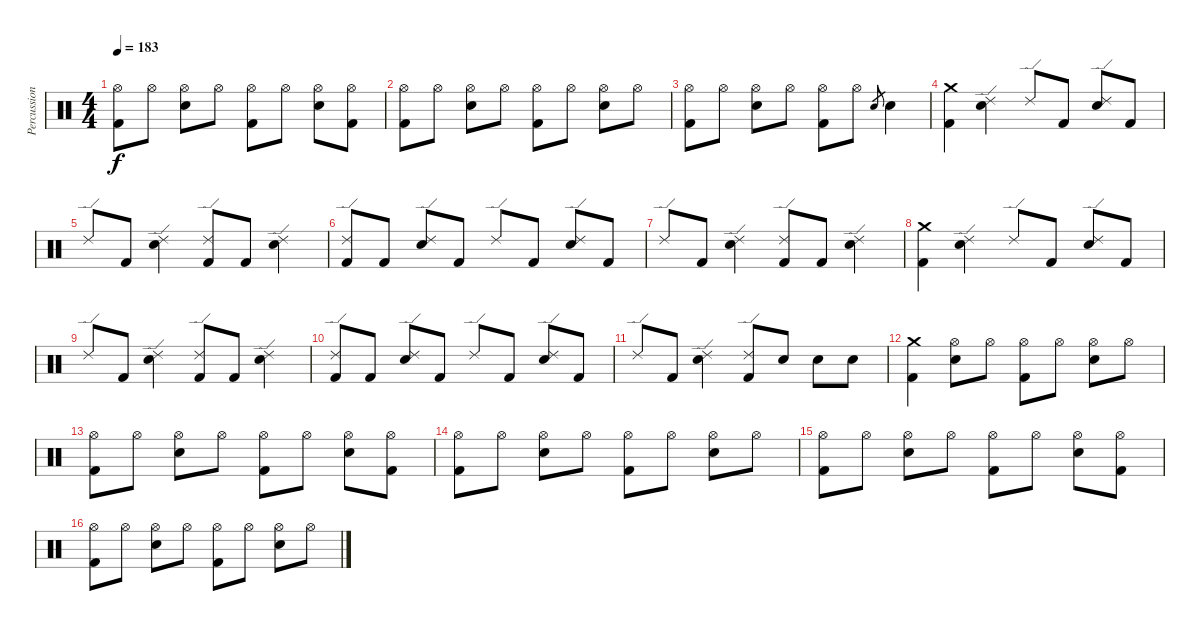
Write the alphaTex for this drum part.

\track ("Percussion" "Percussion") {instrument percussion}
\staff {score}
\articulation defaults
\ts (4 4)
\tempo 183
\clef neutral
\ks c
("Hi-Hat (open)" "Kick (hit) 2").8{dy f} "Hi-Hat (open)".8 ("Hi-Hat (open)" "Snare (hit) 2").8 "Hi-Hat (open)".8 ("Hi-Hat (open)" "Kick (hit) 2").8 "Hi-Hat (open)".8 ("Hi-Hat (open)" "Snare (hit) 2").8 ("Hi-Hat (open)" "Kick (hit) 2").8 |
("Hi-Hat (open)" "Kick (hit) 2").8 "Hi-Hat (open)".8 ("Hi-Hat (open)" "Snare (hit) 2").8 "Hi-Hat (open)".8 ("Hi-Hat (open)" "Kick (hit) 2").8 "Hi-Hat (open)".8 ("Hi-Hat (open)" "Snare (hit) 2").8 "Hi-Hat (open)".8 |
("Hi-Hat (open)" "Kick (hit) 2").8 "Hi-Hat (open)".8 ("Hi-Hat (open)" "Snare (hit) 2").8 "Hi-Hat (open)".8 ("Hi-Hat (open)" "Kick (hit) 2").8 "Hi-Hat (open)".8 "Snare (hit) 2".8{gr} "Snare (hit) 2".4 |
("Crash medium (hit)" "Kick (hit) 2").4 ("Ride (edge) 2" "Snare (hit) 2").4 "Ride (edge) 2".8 "Kick (hit) 2".8 ("Ride (edge) 2" "Snare (hit) 2").8 "Kick (hit) 2".8 |
"Ride (edge) 2".8 "Kick (hit) 2".8 ("Ride (edge) 2" "Snare (hit) 2").4 ("Ride (edge) 2" "Kick (hit) 2").8 "Kick (hit) 2".8 ("Ride (edge) 2" "Snare (hit) 2").4 |
("Ride (edge) 2" "Kick (hit) 2").8 "Kick (hit) 2".8 ("Ride (edge) 2" "Snare (hit) 2").8 "Kick (hit) 2".8 "Ride (edge) 2".8 "Kick (hit) 2".8 ("Ride (edge) 2" "Snare (hit) 2").8 "Kick (hit) 2".8 |
"Ride (edge) 2".8 "Kick (hit) 2".8 ("Ride (edge) 2" "Snare (hit) 2").4 ("Ride (edge) 2" "Kick (hit) 2").8 "Kick (hit) 2".8 ("Ride (edge) 2" "Snare (hit) 2").4 |
("Crash medium (hit)" "Kick (hit) 2").4 ("Ride (edge) 2" "Snare (hit) 2").4 "Ride (edge) 2".8 "Kick (hit) 2".8 ("Ride (edge) 2" "Snare (hit) 2").8 "Kick (hit) 2".8 |
"Ride (edge) 2".8 "Kick (hit) 2".8 ("Ride (edge) 2" "Snare (hit) 2").4 ("Ride (edge) 2" "Kick (hit) 2").8 "Kick (hit) 2".8 ("Ride (edge) 2" "Snare (hit) 2").4 |
("Ride (edge) 2" "Kick (hit) 2").8 "Kick (hit) 2".8 ("Ride (edge) 2" "Snare (hit) 2").8 "Kick (hit) 2".8 "Ride (edge) 2".8 "Kick (hit) 2".8 ("Ride (edge) 2" "Snare (hit) 2").8 "Kick (hit) 2".8 |
"Ride (edge) 2".8 "Kick (hit) 2".8 ("Ride (edge) 2" "Snare (hit) 2").4 ("Ride (edge) 2" "Kick (hit) 2").8 "Snare (hit) 2".8 "Snare (hit) 2".8 "Snare (hit) 2".8 |
("Crash medium (hit)" "Kick (hit) 2").4 ("Hi-Hat (open)" "Snare (hit) 2").8 "Hi-Hat (open)".8 ("Hi-Hat (open)" "Kick (hit) 2").8 "Hi-Hat (open)".8 ("Hi-Hat (open)" "Snare (hit) 2").8 "Hi-Hat (open)".8 |
("Hi-Hat (open)" "Kick (hit) 2").8 "Hi-Hat (open)".8 ("Hi-Hat (open)" "Snare (hit) 2").8 "Hi-Hat (open)".8 ("Hi-Hat (open)" "Kick (hit) 2").8 "Hi-Hat (open)".8 ("Hi-Hat (open)" "Snare (hit) 2").8 ("Hi-Hat (open)" "Kick (hit) 2").8 |
("Hi-Hat (open)" "Kick (hit) 2").8 "Hi-Hat (open)".8 ("Hi-Hat (open)" "Snare (hit) 2").8 "Hi-Hat (open)".8 ("Hi-Hat (open)" "Kick (hit) 2").8 "Hi-Hat (open)".8 ("Hi-Hat (open)" "Snare (hit) 2").8 "Hi-Hat (open)".8 |
("Hi-Hat (open)" "Kick (hit) 2").8 "Hi-Hat (open)".8 ("Hi-Hat (open)" "Snare (hit) 2").8 "Hi-Hat (open)".8 ("Hi-Hat (open)" "Kick (hit) 2").8 "Hi-Hat (open)".8 ("Hi-Hat (open)" "Snare (hit) 2").8 ("Hi-Hat (open)" "Kick (hit) 2").8 |
("Hi-Hat (open)" "Kick (hit) 2").8 "Hi-Hat (open)".8 ("Hi-Hat (open)" "Snare (hit) 2").8 "Hi-Hat (open)".8 ("Hi-Hat (open)" "Kick (hit) 2").8 "Hi-Hat (open)".8 ("Hi-Hat (open)" "Snare (hit) 2").8 "Hi-Hat (open)".8
